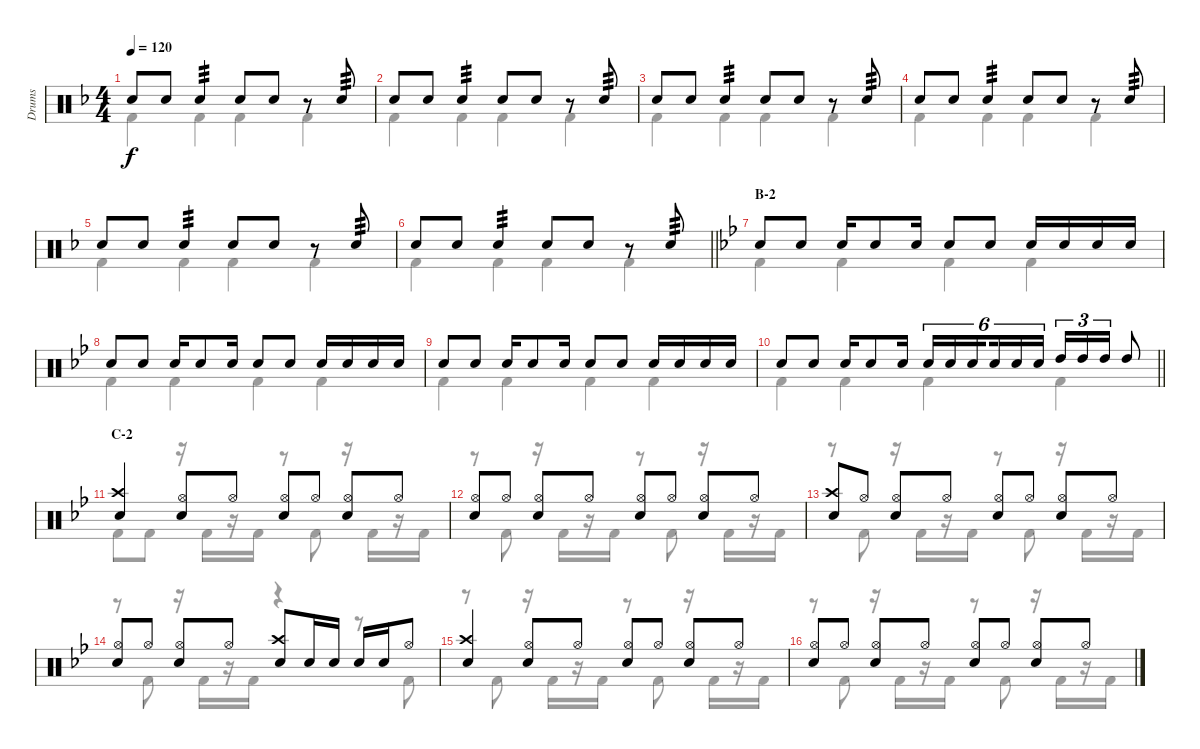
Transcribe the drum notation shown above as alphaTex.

\track ("Drums" "Drums") {instrument percussion}
\staff {score}
\articulation defaults
\voice
\ts (4 4)
\tempo 120
\clef neutral
\ks f "Snare (hit) 2".8{dy f} "Snare (hit) 2".8 "Snare (hit) 2".4{tp 3} "Snare (hit) 2".8 "Snare (hit) 2".8
r.8 "Snare (hit) 2".8{tp 3} |
"Snare (hit) 2".8 "Snare (hit) 2".8 "Snare (hit) 2".4{tp 3} "Snare (hit) 2".8 "Snare (hit) 2".8 r.8 "Snare (hit) 2".8{tp 3} |
"Snare (hit) 2".8 "Snare (hit) 2".8 "Snare (hit) 2".4{tp 3} "Snare (hit) 2".8 "Snare (hit) 2".8 r.8 "Snare (hit) 2".8{tp 3} |
"Snare (hit) 2".8 "Snare (hit) 2".8 "Snare (hit) 2".4{tp 3} "Snare (hit) 2".8 "Snare (hit) 2".8 r.8 "Snare (hit) 2".8{tp 3} |
"Snare (hit) 2".8 "Snare (hit) 2".8 "Snare (hit) 2".4{tp 3} "Snare (hit) 2".8 "Snare (hit) 2".8 r.8 "Snare (hit) 2".8{tp 3} |
\barLineRight lightlight "Snare (hit) 2".8 "Snare (hit) 2".8 "Snare (hit) 2".4{tp 3} "Snare (hit) 2".8 "Snare (hit) 2".8
r.8 "Snare (hit) 2".8{tp 3} |
\section ("" "B-2")
\ks bb "Snare (hit) 2".8 "Snare (hit) 2".8 "Snare (hit) 2".16 "Snare (hit) 2".8 "Snare (hit) 2".16 "Snare (hit) 2".8 "Snare (hit) 2".8 "Snare (hit) 2".16 "Snare (hit) 2".16 "Snare (hit) 2".16 "Snare (hit) 2".16
|
"Snare (hit) 2".8 "Snare (hit) 2".8 "Snare (hit) 2".16 "Snare (hit) 2".8 "Snare (hit) 2".16 "Snare (hit) 2".8 "Snare (hit) 2".8 "Snare (hit) 2".16 "Snare (hit) 2".16 "Snare (hit) 2".16 "Snare (hit) 2".16 |
"Snare (hit) 2".8 "Snare (hit) 2".8 "Snare (hit) 2".16 "Snare (hit) 2".8 "Snare (hit) 2".16 "Snare (hit) 2".8 "Snare (hit) 2".8 "Snare (hit) 2".16 "Snare (hit) 2".16 "Snare (hit) 2".16 "Snare (hit) 2".16 |
\barLineRight lightlight "Snare (hit) 2".8 "Snare (hit) 2".8 "Snare (hit) 2".16 "Snare (hit) 2".8 "Snare (hit) 2".16 "Snare (hit) 2".16{tu (6 4)} "Snare (hit) 2".16{tu (6 4)} "Snare (hit) 2".16{tu (6 4) beam splitsecondary} "Snare (hit) 2".16{tu (6 4)} "Snare (hit) 2".16{tu (6 4)} "Snare (hit) 2".16{tu (6 4)} "High Tom (hit)".16{tu (3 2)} "High Tom (hit)".16{tu (3 2)} "High Tom (hit)".16{tu (3 2)} "High Tom (hit)".8
|
\section ("" "C-2")
("Crash high (hit)" "Snare (hit) 2").4 ("Hi-Hat (open)" "Snare (hit) 2").8 "Hi-Hat (open)".8 ("Hi-Hat (open)" "Snare (hit) 2").8 "Hi-Hat (open)".8 ("Hi-Hat (open)" "Snare (hit) 2").8 "Hi-Hat (open)".8 |
("Hi-Hat (open)" "Snare (hit) 2").8 "Hi-Hat (open)".8 ("Hi-Hat (open)" "Snare (hit) 2").8 "Hi-Hat (open)".8 ("Hi-Hat (open)" "Snare (hit) 2").8 "Hi-Hat (open)".8 ("Hi-Hat (open)" "Snare (hit) 2").8 "Hi-Hat (open)".8 |
("Crash high (hit)" "Snare (hit) 2").8 "Hi-Hat (open)".8 ("Hi-Hat (open)" "Snare (hit) 2").8 "Hi-Hat (open)".8 ("Hi-Hat (open)" "Snare (hit) 2").8 "Hi-Hat (open)".8 ("Hi-Hat (open)" "Snare (hit) 2").8 "Hi-Hat (open)".8 |
("Hi-Hat (open)" "Snare (hit) 2").8 "Hi-Hat (open)".8 ("Hi-Hat (open)" "Snare (hit) 2").8 "Hi-Hat (open)".8 ("Crash high (hit)" "Snare (hit) 2").8 "Snare (hit) 2".16 "Snare (hit) 2".16 "Snare (hit) 2".16 "Snare (hit) 2".16 "Hi-Hat (open)".8 |
("Crash high (hit)" "Snare (hit) 2").4 ("Hi-Hat (open)" "Snare (hit) 2").8 "Hi-Hat (open)".8 ("Hi-Hat (open)" "Snare (hit) 2").8 "Hi-Hat (open)".8 ("Hi-Hat (open)" "Snare (hit) 2").8 "Hi-Hat (open)".8 |
("Hi-Hat (open)" "Snare (hit) 2").8 "Hi-Hat (open)".8 ("Hi-Hat (open)" "Snare (hit) 2").8 "Hi-Hat (open)".8 ("Hi-Hat (open)" "Snare (hit) 2").8 "Hi-Hat (open)".8 ("Hi-Hat (open)" "Snare (hit) 2").8 "Hi-Hat (open)".8
\voice
\clef neutral
\ottava regular
\simile none
\ks f "Kick (hit) 2".4{dy f} "Kick (hit) 2".4 "Kick (hit) 2".4 "Kick (hit) 2".4
|
"Kick (hit) 2".4 "Kick (hit) 2".4 "Kick (hit) 2".4 "Kick (hit) 2".4 |
"Kick (hit) 2".4 "Kick (hit) 2".4 "Kick (hit) 2".4 "Kick (hit) 2".4 |
"Kick (hit) 2".4 "Kick (hit) 2".4 "Kick (hit) 2".4 "Kick (hit) 2".4 |
"Kick (hit) 2".4 "Kick (hit) 2".4 "Kick (hit) 2".4 "Kick (hit) 2".4 |
\barLineRight lightlight "Kick (hit) 2".4 "Kick (hit) 2".4 "Kick (hit) 2".4 "Kick (hit) 2".4
|
\ks bb "Kick (hit) 2".4 "Kick (hit) 2".4 "Kick (hit) 2".4 "Kick (hit) 2".4
|
"Kick (hit) 2".4 "Kick (hit) 2".4 "Kick (hit) 2".4 "Kick (hit) 2".4 |
"Kick (hit) 2".4 "Kick (hit) 2".4 "Kick (hit) 2".4 "Kick (hit) 2".4 |
\barLineRight lightlight "Kick (hit) 2".4 "Kick (hit) 2".4 "Kick (hit) 2".4 "Kick (hit) 2".4
|
"Kick (hit) 2".8 "Kick (hit) 2".8 r.16 "Kick (hit) 2".16 r.16 "Kick (hit) 2".16 r.8 "Kick (hit) 2".8 r.16 "Kick (hit) 2".16 r.16 "Kick (hit) 2".16 |
r.8 "Kick (hit) 2".8 r.16 "Kick (hit) 2".16 r.16 "Kick (hit) 2".16 r.8 "Kick (hit) 2".8 r.16 "Kick (hit) 2".16 r.16 "Kick (hit) 2".16 |
r.8 "Kick (hit) 2".8 r.16 "Kick (hit) 2".16 r.16 "Kick (hit) 2".16 r.8 "Kick (hit) 2".8 r.16 "Kick (hit) 2".16 r.16 "Kick (hit) 2".16 |
r.8 "Kick (hit) 2".8 r.16 "Kick (hit) 2".16 r.16 "Kick (hit) 2".16 r.4 r.8 "Kick (hit) 2".8 |
r.8 "Kick (hit) 2".8 r.16 "Kick (hit) 2".16 r.16 "Kick (hit) 2".16 r.8 "Kick (hit) 2".8 r.16 "Kick (hit) 2".16 r.16 "Kick (hit) 2".16 |
r.8 "Kick (hit) 2".8 r.16 "Kick (hit) 2".16 r.16 "Kick (hit) 2".16 r.8 "Kick (hit) 2".8 r.16 "Kick (hit) 2".16 r.16 "Kick (hit) 2".16
